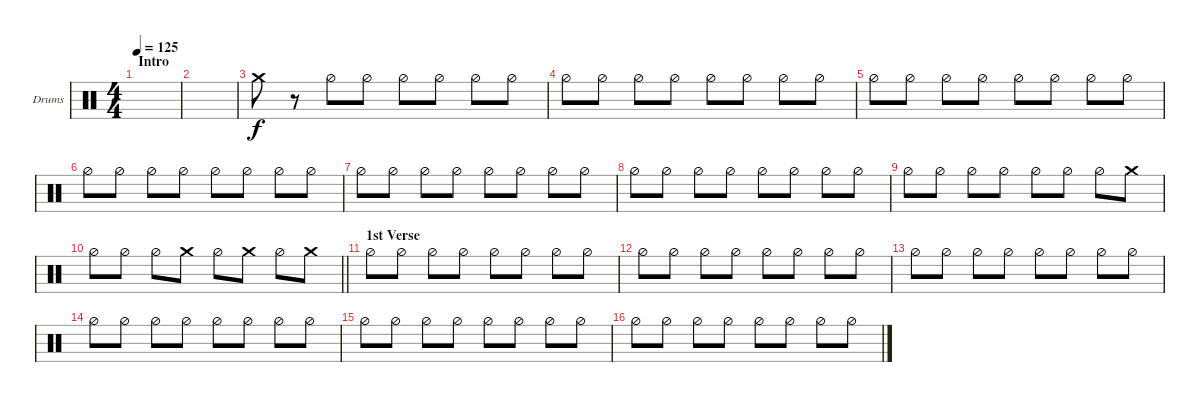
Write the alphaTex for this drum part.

\bracketExtendMode groupsimilarinstruments
\firstSystemTrackNameOrientation horizontal
\otherSystemsTrackNameOrientation horizontal
\track ("Nick Menza" "Drums") {instrument percussion}
\staff {score}
\articulation defaults
\ts (4 4)
\beaming (8 2 2 2 2)
\section ("" "Intro")
\tempo 125
\clef neutral
\scale
0.333333
\ks c
|
\scale
0.333333 |
\scale
0.333333 "Crash medium (hit)".8 r.8 "Hi-Hat (half)".8 "Hi-Hat (half)".8 "Hi-Hat (half)".8 "Hi-Hat (half)".8 "Hi-Hat (half)".8 "Hi-Hat (half)".8 |
\scale
0.333333 "Hi-Hat (half)".8 "Hi-Hat (half)".8 "Hi-Hat (half)".8 "Hi-Hat (half)".8 "Hi-Hat (half)".8 "Hi-Hat (half)".8 "Hi-Hat (half)".8 "Hi-Hat (half)".8 |
\scale
0.333333 "Hi-Hat (half)".8 "Hi-Hat (half)".8 "Hi-Hat (half)".8 "Hi-Hat (half)".8 "Hi-Hat (half)".8 "Hi-Hat (half)".8 "Hi-Hat (half)".8 "Hi-Hat (half)".8 |
\scale
0.333333 "Hi-Hat (half)".8 "Hi-Hat (half)".8 "Hi-Hat (half)".8 "Hi-Hat (half)".8 "Hi-Hat (half)".8 "Hi-Hat (half)".8 "Hi-Hat (half)".8 "Hi-Hat (half)".8 |
\scale
0.333333 "Hi-Hat (half)".8 "Hi-Hat (half)".8 "Hi-Hat (half)".8 "Hi-Hat (half)".8 "Hi-Hat (half)".8 "Hi-Hat (half)".8 "Hi-Hat (half)".8 "Hi-Hat (half)".8 |
\scale
0.333333 "Hi-Hat (half)".8 "Hi-Hat (half)".8 "Hi-Hat (half)".8 "Hi-Hat (half)".8 "Hi-Hat (half)".8 "Hi-Hat (half)".8 "Hi-Hat (half)".8 "Hi-Hat (half)".8 |
\scale
0.311475 "Hi-Hat (half)".8 "Hi-Hat (half)".8 "Hi-Hat (half)".8 "Hi-Hat (half)".8 "Hi-Hat (half)".8 "Hi-Hat (half)".8 "Hi-Hat (half)".8 "Crash medium (hit)".8 |
\scale
0.311475
\barLineRight lightlight "Hi-Hat (half)".8 "Hi-Hat (half)".8 "Hi-Hat (half)".8 "Crash medium (hit)".8 "Hi-Hat (half)".8 "Crash medium (hit)".8 "Hi-Hat (half)".8 "Crash medium (hit)".8
|
\section ("" "1st Verse")
\scale
0.377049 "Hi-Hat (half)".8 "Hi-Hat (half)".8 "Hi-Hat (half)".8 "Hi-Hat (half)".8 "Hi-Hat (half)".8 "Hi-Hat (half)".8 "Hi-Hat (half)".8 "Hi-Hat (half)".8 |
\scale
0.333333 "Hi-Hat (half)".8 "Hi-Hat (half)".8 "Hi-Hat (half)".8 "Hi-Hat (half)".8 "Hi-Hat (half)".8 "Hi-Hat (half)".8 "Hi-Hat (half)".8 "Hi-Hat (half)".8 |
\scale
0.333333 "Hi-Hat (half)".8 "Hi-Hat (half)".8 "Hi-Hat (half)".8 "Hi-Hat (half)".8 "Hi-Hat (half)".8 "Hi-Hat (half)".8 "Hi-Hat (half)".8 "Hi-Hat (half)".8 |
\scale
0.333333 "Hi-Hat (half)".8 "Hi-Hat (half)".8 "Hi-Hat (half)".8 "Hi-Hat (half)".8 "Hi-Hat (half)".8 "Hi-Hat (half)".8 "Hi-Hat (half)".8 "Hi-Hat (half)".8 |
\scale
0.333333 "Hi-Hat (half)".8 "Hi-Hat (half)".8 "Hi-Hat (half)".8 "Hi-Hat (half)".8 "Hi-Hat (half)".8 "Hi-Hat (half)".8 "Hi-Hat (half)".8 "Hi-Hat (half)".8 |
\scale
0.333333 "Hi-Hat (half)".8 "Hi-Hat (half)".8 "Hi-Hat (half)".8 "Hi-Hat (half)".8 "Hi-Hat (half)".8 "Hi-Hat (half)".8 "Hi-Hat (half)".8 "Hi-Hat (half)".8
